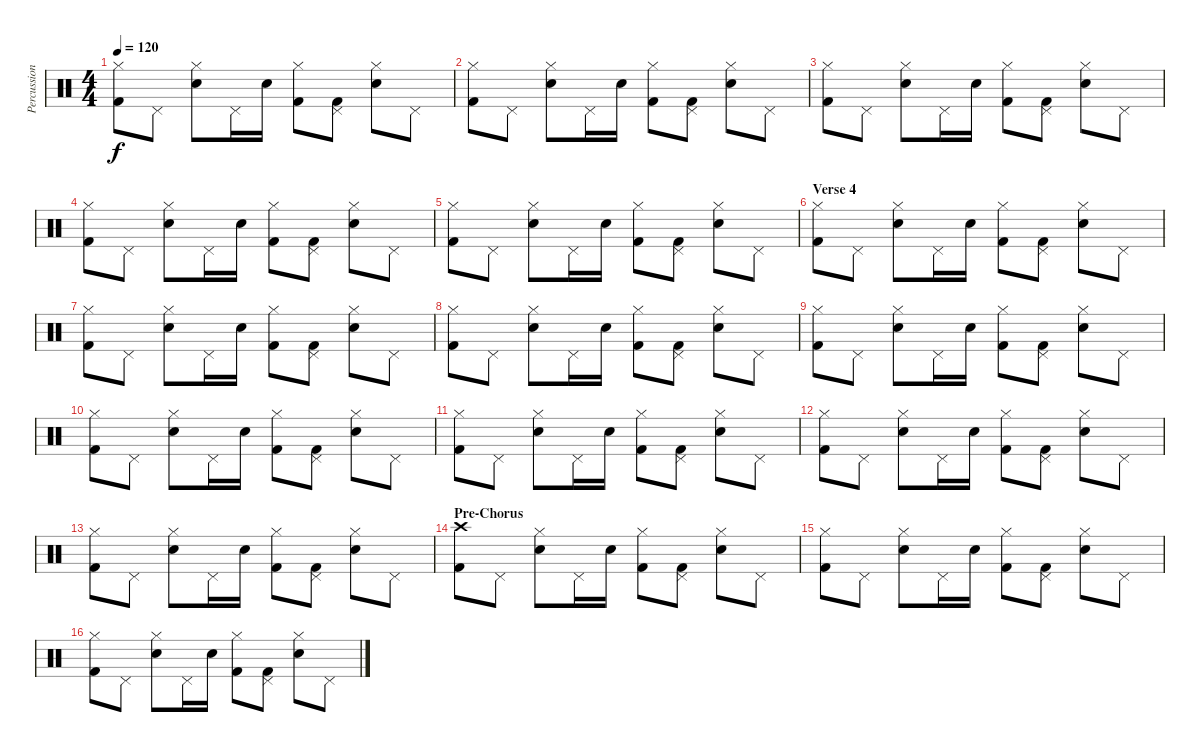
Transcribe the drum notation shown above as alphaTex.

\track ("Percussion" "Percussion") {instrument percussion}
\staff {score}
\articulation defaults
\ts (4 4)
\tempo 120
\clef neutral
\ks c
("Kick (hit) 2" "Hi-Hat (closed)").8{dy f} "Pedal Hi-Hat (hit)".8 ("Electric Snare (hit)" "Hi-Hat (closed)").8 "Pedal Hi-Hat (hit)".16 "Electric Snare (hit)".16 ("Kick (hit) 2" "Hi-Hat (closed)").8 ("Kick (hit) 2" "Pedal Hi-Hat (hit)").8 ("Electric Snare (hit)" "Hi-Hat (closed)").8 "Pedal Hi-Hat (hit)".8 |
("Kick (hit) 2" "Hi-Hat (closed)").8 "Pedal Hi-Hat (hit)".8 ("Electric Snare (hit)" "Hi-Hat (closed)").8 "Pedal Hi-Hat (hit)".16 "Electric Snare (hit)".16 ("Kick (hit) 2" "Hi-Hat (closed)").8 ("Kick (hit) 2" "Pedal Hi-Hat (hit)").8 ("Electric Snare (hit)" "Hi-Hat (closed)").8 "Pedal Hi-Hat (hit)".8 |
("Kick (hit) 2" "Hi-Hat (closed)").8 "Pedal Hi-Hat (hit)".8 ("Electric Snare (hit)" "Hi-Hat (closed)").8 "Pedal Hi-Hat (hit)".16 "Electric Snare (hit)".16 ("Kick (hit) 2" "Hi-Hat (closed)").8 ("Kick (hit) 2" "Pedal Hi-Hat (hit)").8 ("Electric Snare (hit)" "Hi-Hat (closed)").8 "Pedal Hi-Hat (hit)".8 |
("Kick (hit) 2" "Hi-Hat (closed)").8 "Pedal Hi-Hat (hit)".8 ("Electric Snare (hit)" "Hi-Hat (closed)").8 "Pedal Hi-Hat (hit)".16 "Electric Snare (hit)".16 ("Kick (hit) 2" "Hi-Hat (closed)").8 ("Kick (hit) 2" "Pedal Hi-Hat (hit)").8 ("Electric Snare (hit)" "Hi-Hat (closed)").8 "Pedal Hi-Hat (hit)".8 |
("Kick (hit) 2" "Hi-Hat (closed)").8 "Pedal Hi-Hat (hit)".8 ("Electric Snare (hit)" "Hi-Hat (closed)").8 "Pedal Hi-Hat (hit)".16 "Electric Snare (hit)".16 ("Kick (hit) 2" "Hi-Hat (closed)").8 ("Kick (hit) 2" "Pedal Hi-Hat (hit)").8 ("Electric Snare (hit)" "Hi-Hat (closed)").8 "Pedal Hi-Hat (hit)".8 |
\section ("" "Verse 4")
("Kick (hit) 2" "Hi-Hat (closed)").8 "Pedal Hi-Hat (hit)".8 ("Electric Snare (hit)" "Hi-Hat (closed)").8 "Pedal Hi-Hat (hit)".16 "Electric Snare (hit)".16 ("Kick (hit) 2" "Hi-Hat (closed)").8 ("Kick (hit) 2" "Pedal Hi-Hat (hit)").8 ("Electric Snare (hit)" "Hi-Hat (closed)").8 "Pedal Hi-Hat (hit)".8 |
("Kick (hit) 2" "Hi-Hat (closed)").8 "Pedal Hi-Hat (hit)".8 ("Electric Snare (hit)" "Hi-Hat (closed)").8 "Pedal Hi-Hat (hit)".16 "Electric Snare (hit)".16 ("Kick (hit) 2" "Hi-Hat (closed)").8 ("Kick (hit) 2" "Pedal Hi-Hat (hit)").8 ("Electric Snare (hit)" "Hi-Hat (closed)").8 "Pedal Hi-Hat (hit)".8 |
("Kick (hit) 2" "Hi-Hat (closed)").8 "Pedal Hi-Hat (hit)".8 ("Electric Snare (hit)" "Hi-Hat (closed)").8 "Pedal Hi-Hat (hit)".16 "Electric Snare (hit)".16 ("Kick (hit) 2" "Hi-Hat (closed)").8 ("Kick (hit) 2" "Pedal Hi-Hat (hit)").8 ("Electric Snare (hit)" "Hi-Hat (closed)").8 "Pedal Hi-Hat (hit)".8 |
("Kick (hit) 2" "Hi-Hat (closed)").8 "Pedal Hi-Hat (hit)".8 ("Electric Snare (hit)" "Hi-Hat (closed)").8 "Pedal Hi-Hat (hit)".16 "Electric Snare (hit)".16 ("Kick (hit) 2" "Hi-Hat (closed)").8 ("Kick (hit) 2" "Pedal Hi-Hat (hit)").8 ("Electric Snare (hit)" "Hi-Hat (closed)").8 "Pedal Hi-Hat (hit)".8 |
("Kick (hit) 2" "Hi-Hat (closed)").8 "Pedal Hi-Hat (hit)".8 ("Electric Snare (hit)" "Hi-Hat (closed)").8 "Pedal Hi-Hat (hit)".16 "Electric Snare (hit)".16 ("Kick (hit) 2" "Hi-Hat (closed)").8 ("Kick (hit) 2" "Pedal Hi-Hat (hit)").8 ("Electric Snare (hit)" "Hi-Hat (closed)").8 "Pedal Hi-Hat (hit)".8 |
("Kick (hit) 2" "Hi-Hat (closed)").8 "Pedal Hi-Hat (hit)".8 ("Electric Snare (hit)" "Hi-Hat (closed)").8 "Pedal Hi-Hat (hit)".16 "Electric Snare (hit)".16 ("Kick (hit) 2" "Hi-Hat (closed)").8 ("Kick (hit) 2" "Pedal Hi-Hat (hit)").8 ("Electric Snare (hit)" "Hi-Hat (closed)").8 "Pedal Hi-Hat (hit)".8 |
("Kick (hit) 2" "Hi-Hat (closed)").8 "Pedal Hi-Hat (hit)".8 ("Electric Snare (hit)" "Hi-Hat (closed)").8 "Pedal Hi-Hat (hit)".16 "Electric Snare (hit)".16 ("Kick (hit) 2" "Hi-Hat (closed)").8 ("Kick (hit) 2" "Pedal Hi-Hat (hit)").8 ("Electric Snare (hit)" "Hi-Hat (closed)").8 "Pedal Hi-Hat (hit)".8 |
("Kick (hit) 2" "Hi-Hat (closed)").8 "Pedal Hi-Hat (hit)".8 ("Electric Snare (hit)" "Hi-Hat (closed)").8 "Pedal Hi-Hat (hit)".16 "Electric Snare (hit)".16 ("Kick (hit) 2" "Hi-Hat (closed)").8 ("Kick (hit) 2" "Pedal Hi-Hat (hit)").8 ("Electric Snare (hit)" "Hi-Hat (closed)").8 "Pedal Hi-Hat (hit)".8 |
\section ("" "Pre-Chorus")
("Kick (hit) 2" "Crash high (hit)").8 "Pedal Hi-Hat (hit)".8 ("Electric Snare (hit)" "Hi-Hat (closed)").8 "Pedal Hi-Hat (hit)".16 "Electric Snare (hit)".16 ("Kick (hit) 2" "Hi-Hat (closed)").8 ("Kick (hit) 2" "Pedal Hi-Hat (hit)").8 ("Electric Snare (hit)" "Hi-Hat (closed)").8 "Pedal Hi-Hat (hit)".8 |
("Kick (hit) 2" "Hi-Hat (closed)").8 "Pedal Hi-Hat (hit)".8 ("Electric Snare (hit)" "Hi-Hat (closed)").8 "Pedal Hi-Hat (hit)".16 "Electric Snare (hit)".16 ("Kick (hit) 2" "Hi-Hat (closed)").8 ("Kick (hit) 2" "Pedal Hi-Hat (hit)").8 ("Electric Snare (hit)" "Hi-Hat (closed)").8 "Pedal Hi-Hat (hit)".8 |
("Kick (hit) 2" "Hi-Hat (closed)").8 "Pedal Hi-Hat (hit)".8 ("Electric Snare (hit)" "Hi-Hat (closed)").8 "Pedal Hi-Hat (hit)".16 "Electric Snare (hit)".16 ("Kick (hit) 2" "Hi-Hat (closed)").8 ("Kick (hit) 2" "Pedal Hi-Hat (hit)").8 ("Electric Snare (hit)" "Hi-Hat (closed)").8 "Pedal Hi-Hat (hit)".8
